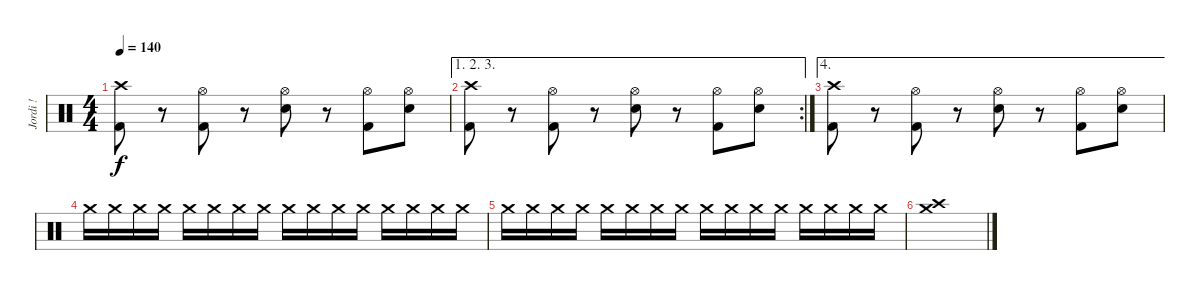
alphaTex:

\track ("Jordi !" "Jordi !") {instrument percussion}
\staff {score}
\articulation defaults
\ts (4 4)
\tempo 140
\clef neutral
\ks c
("Crash high (hit)" "Kick (hit) 2").8{dy f} r.8 ("Hi-Hat (open)" "Kick (hit) 2").8 r.8 ("Hi-Hat (open)" "Electric Snare (hit)").8 r.8 ("Hi-Hat (open)" "Kick (hit) 2").8 ("Hi-Hat (open)" "Electric Snare (hit)").8 |
\ae (1 2 3)
\rc 2
("Crash high (hit)" "Kick (hit) 2").8 r.8 ("Hi-Hat (open)" "Kick (hit) 2").8 r.8 ("Hi-Hat (open)" "Electric Snare (hit)").8 r.8 ("Hi-Hat (open)" "Kick (hit) 2").8 ("Hi-Hat (open)" "Electric Snare (hit)").8 |
\ae 4
("Crash high (hit)" "Kick (hit) 2").8 r.8 ("Hi-Hat (open)" "Kick (hit) 2").8 r.8 ("Hi-Hat (open)" "Electric Snare (hit)").8 r.8 ("Hi-Hat (open)" "Kick (hit) 2").8 ("Hi-Hat (open)" "Electric Snare (hit)").8 |
"Crash medium (hit)".16 "Crash medium (hit)".16 "Crash medium (hit)".16 "Crash medium (hit)".16 "Crash medium (hit)".16 "Crash medium (hit)".16 "Crash medium (hit)".16 "Crash medium (hit)".16 "Crash medium (hit)".16 "Crash medium (hit)".16 "Crash medium (hit)".16 "Crash medium (hit)".16 "Crash medium (hit)".16 "Crash medium (hit)".16 "Crash medium (hit)".16 "Crash medium (hit)".16 |
"Crash medium (hit)".16 "Crash medium (hit)".16 "Crash medium (hit)".16 "Crash medium (hit)".16 "Crash medium (hit)".16 "Crash medium (hit)".16 "Crash medium (hit)".16 "Crash medium (hit)".16 "Crash medium (hit)".16 "Crash medium (hit)".16 "Crash medium (hit)".16 "Crash medium (hit)".16 "Crash medium (hit)".16 "Crash medium (hit)".16 "Crash medium (hit)".16 "Crash medium (hit)".16 |
("Crash medium (hit)" "Crash high (hit)").1
